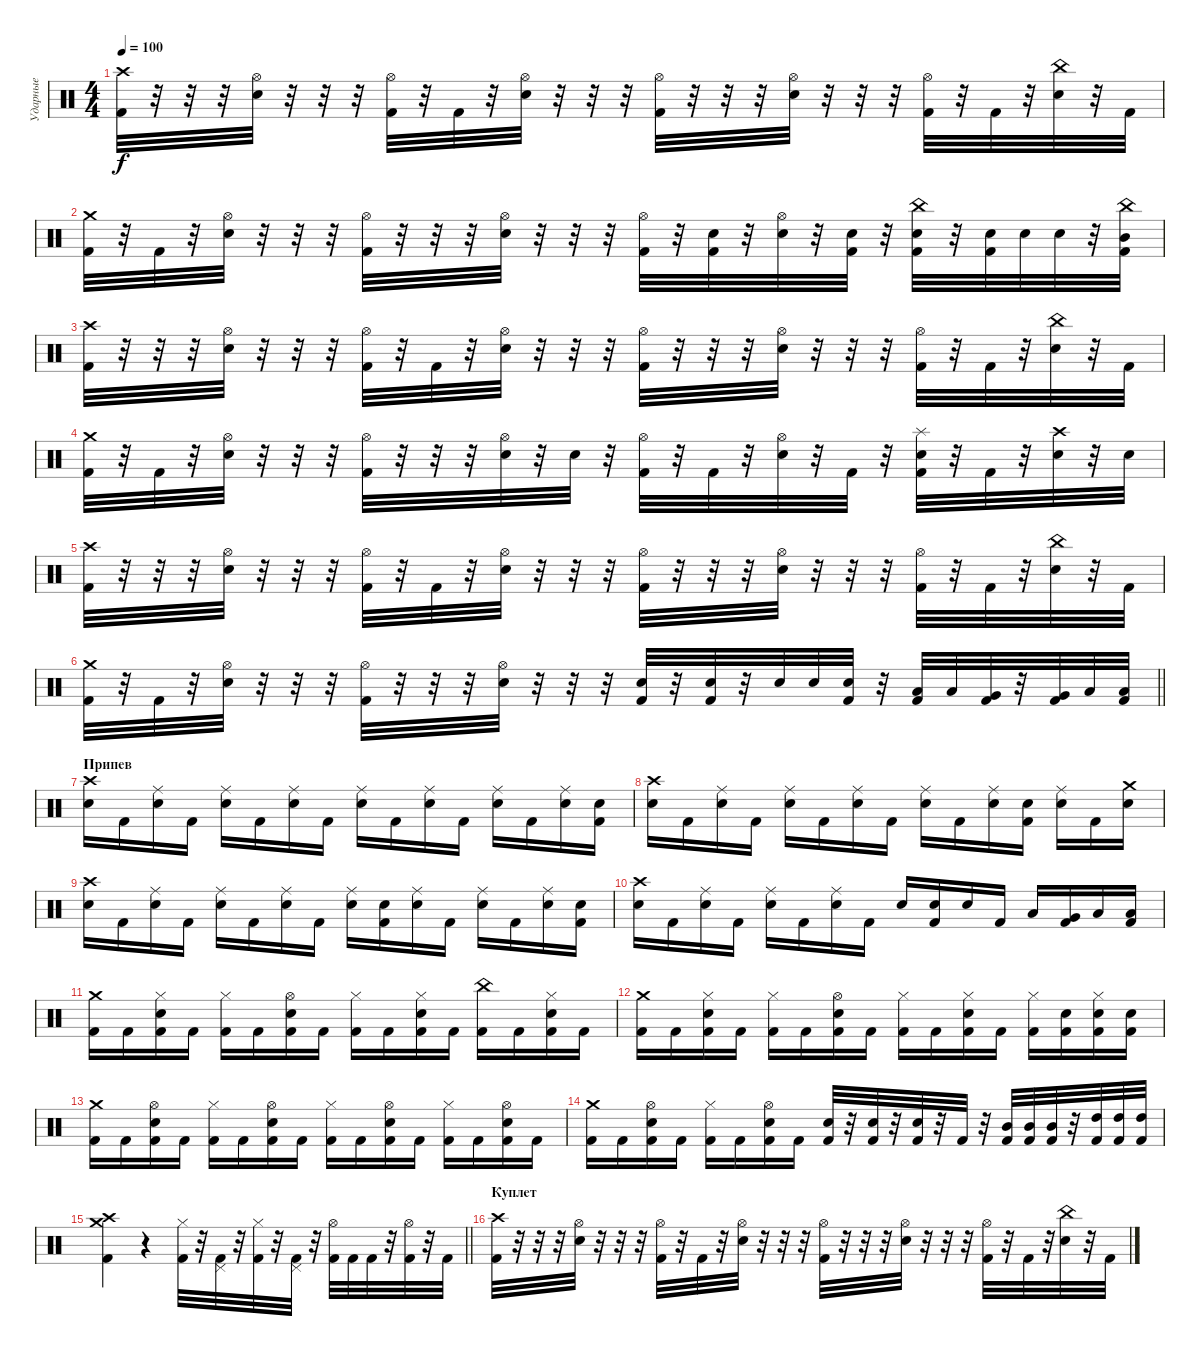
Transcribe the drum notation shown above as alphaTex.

\track ("Ударные" "Ударные") {instrument percussion}
\staff {score}
\articulation defaults
\ts (4 4)
\tempo 100
\clef neutral
\ks c
("Crash high (hit)" "Kick (hit) 2").32{dy f} r.32 r.32 r.32 ("Hi-Hat (open)" "Snare (hit) 2").32 r.32 r.32 r.32 ("Hi-Hat (open)" "Kick (hit) 2").32 r.32 "Kick (hit) 2".32 r.32 ("Hi-Hat (open)" "Snare (hit) 2").32 r.32 r.32 r.32 ("Hi-Hat (open)" "Kick (hit) 2").32 r.32 r.32 r.32 ("Hi-Hat (open)" "Snare (hit) 2").32 r.32 r.32 r.32 ("Hi-Hat (open)" "Kick (hit) 2").32 r.32 "Kick (hit) 2".32 r.32 ("China (hit)" "Snare (hit) 2").32 r.32 "Kick (hit) 2".32 |
("Crash medium (hit)" "Kick (hit) 2").32 r.32 "Kick (hit) 2".32 r.32 ("Hi-Hat (open)" "Snare (hit) 2").32 r.32 r.32 r.32 ("Hi-Hat (open)" "Kick (hit) 2").32 r.32 r.32 r.32 ("Hi-Hat (open)" "Snare (hit) 2").32 r.32 r.32 r.32 ("Hi-Hat (open)" "Kick (hit) 2").32 r.32 ("Snare (hit) 2" "Kick (hit) 2").32 r.32 ("Hi-Hat (open)" "Snare (hit) 2").32 r.32 ("Snare (hit) 2" "Kick (hit) 2").32 r.32 ("China (hit)" "Snare (hit) 2" "Kick (hit) 2").32 r.32 ("Snare (hit) 2" "Kick (hit) 2").32 "Snare (hit) 2".32 "Snare (hit) 2".32 r.32 ("China (hit)" "Mid Tom (hit)" "Kick (hit) 2").32 |
("Crash high (hit)" "Kick (hit) 2").32 r.32 r.32 r.32 ("Hi-Hat (open)" "Snare (hit) 2").32 r.32 r.32 r.32 ("Hi-Hat (open)" "Kick (hit) 2").32 r.32 "Kick (hit) 2".32 r.32 ("Hi-Hat (open)" "Snare (hit) 2").32 r.32 r.32 r.32 ("Hi-Hat (open)" "Kick (hit) 2").32 r.32 r.32 r.32 ("Hi-Hat (open)" "Snare (hit) 2").32 r.32 r.32 r.32 ("Hi-Hat (open)" "Kick (hit) 2").32 r.32 "Kick (hit) 2".32 r.32 ("China (hit)" "Snare (hit) 2").32 r.32 "Kick (hit) 2".32 |
("Crash medium (hit)" "Kick (hit) 2").32 r.32 "Kick (hit) 2".32 r.32 ("Hi-Hat (open)" "Snare (hit) 2").32 r.32 r.32 r.32 ("Hi-Hat (open)" "Kick (hit) 2").32 r.32 r.32 r.32 ("Hi-Hat (open)" "Snare (hit) 2").32 r.32 "Snare (hit) 2".32 r.32 ("Hi-Hat (open)" "Kick (hit) 2").32 r.32 "Kick (hit) 2".32 r.32 ("Hi-Hat (open)" "Snare (hit) 2").32 r.32 "Kick (hit) 2".32 r.32 ("Splash (hit)" "Snare (hit) 2" "Kick (hit) 2").32 r.32 "Kick (hit) 2".32 r.32 ("Crash high (hit)" "Snare (hit) 2").32 r.32 "Snare (hit) 2".32 |
("Crash high (hit)" "Kick (hit) 2").32 r.32 r.32 r.32 ("Hi-Hat (open)" "Snare (hit) 2").32 r.32 r.32 r.32 ("Hi-Hat (open)" "Kick (hit) 2").32 r.32 "Kick (hit) 2".32 r.32 ("Hi-Hat (open)" "Snare (hit) 2").32 r.32 r.32 r.32 ("Hi-Hat (open)" "Kick (hit) 2").32 r.32 r.32 r.32 ("Hi-Hat (open)" "Snare (hit) 2").32 r.32 r.32 r.32 ("Hi-Hat (open)" "Kick (hit) 2").32 r.32 "Kick (hit) 2".32 r.32 ("China (hit)" "Snare (hit) 2").32 r.32 "Kick (hit) 2".32 |
\barLineRight lightlight
("Crash medium (hit)" "Kick (hit) 2").32 r.32 "Kick (hit) 2".32 r.32 ("Hi-Hat (open)" "Snare (hit) 2").32 r.32 r.32 r.32 ("Hi-Hat (open)" "Kick (hit) 2").32 r.32 r.32 r.32 ("Hi-Hat (open)" "Snare (hit) 2").32 r.32 r.32 r.32 ("Snare (hit) 2" "Kick (hit) 2").32 r.32 ("Snare (hit) 2" "Kick (hit) 2").32 r.32 "Snare (hit) 2".32 "Snare (hit) 2".32 ("Snare (hit) 2" "Kick (hit) 2").32 r.32 ("Low Tom (hit)" "Kick (hit) 2").32 "Low Tom (hit)".32 ("Very Low Tom (hit)" "Kick (hit) 2").32 r.32 ("Very Low Tom (hit)" "Kick (hit) 2").32 "Low Floor Tom (hit)".32 ("Low Floor Tom (hit)" "Kick (hit) 2").32 |
\section ("" "Припев")
("Crash high (hit)" "Snare (hit) 2").16 "Kick (hit) 2".16 ("Ride (middle)" "Snare (hit) 2").16 "Kick (hit) 2".16 ("Ride (middle)" "Snare (hit) 2").16 "Kick (hit) 2".16 ("Ride (middle)" "Snare (hit) 2").16 "Kick (hit) 2".16 ("Ride (middle)" "Snare (hit) 2").16 "Kick (hit) 2".16 ("Ride (middle)" "Snare (hit) 2").16 "Kick (hit) 2".16 ("Ride (middle)" "Snare (hit) 2").16 "Kick (hit) 2".16 ("Ride (middle)" "Snare (hit) 2").16 ("Snare (hit) 2" "Kick (hit) 2").16 |
("Crash high (hit)" "Snare (hit) 2").16 "Kick (hit) 2".16 ("Ride (middle)" "Snare (hit) 2").16 "Kick (hit) 2".16 ("Ride (middle)" "Snare (hit) 2").16 "Kick (hit) 2".16 ("Ride (middle)" "Snare (hit) 2").16 "Kick (hit) 2".16 ("Ride (middle)" "Snare (hit) 2").16 "Kick (hit) 2".16 ("Ride (middle)" "Snare (hit) 2").16 ("Snare (hit) 2" "Kick (hit) 2").16 ("Ride (middle)" "Snare (hit) 2").16 "Kick (hit) 2".16 ("Crash medium (hit)" "Snare (hit) 2").16 |
("Crash high (hit)" "Snare (hit) 2").16 "Kick (hit) 2".16 ("Ride (middle)" "Snare (hit) 2").16 "Kick (hit) 2".16 ("Ride (middle)" "Snare (hit) 2").16 "Kick (hit) 2".16 ("Ride (middle)" "Snare (hit) 2").16 "Kick (hit) 2".16 ("Ride (middle)" "Snare (hit) 2").16 ("Snare (hit) 2" "Kick (hit) 2").16 ("Ride (middle)" "Snare (hit) 2").16 "Kick (hit) 2".16 ("Ride (middle)" "Snare (hit) 2").16 "Kick (hit) 2".16 ("Ride (middle)" "Snare (hit) 2").16 ("Snare (hit) 2" "Kick (hit) 2").16 |
("Crash high (hit)" "Snare (hit) 2").16 "Kick (hit) 2".16 ("Ride (middle)" "Snare (hit) 2").16 "Kick (hit) 2".16 ("Ride (middle)" "Snare (hit) 2").16 "Kick (hit) 2".16 ("Ride (middle)" "Snare (hit) 2").16 "Kick (hit) 2".16 "Snare (hit) 2".16 ("Snare (hit) 2" "Kick (hit) 2").16 "Snare (hit) 2".16 "Kick (hit) 2".16 "Low Tom (hit)".16 ("Very Low Tom (hit)" "Kick (hit) 2").16 "Low Tom (hit)".16 ("Low Floor Tom (hit)" "Kick (hit) 2").16 |
("Crash medium (hit)" "Kick (hit) 2").16 "Kick (hit) 2".16 ("Hi-Hat (closed)" "Snare (hit) 2" "Kick (hit) 2").16 "Kick (hit) 2".16 ("Hi-Hat (closed)" "Kick (hit) 2").16 "Kick (hit) 2".16 ("Hi-Hat (open)" "Snare (hit) 2" "Kick (hit) 2").16 "Kick (hit) 2".16 ("Hi-Hat (closed)" "Kick (hit) 2").16 "Kick (hit) 2".16 ("Hi-Hat (closed)" "Snare (hit) 2" "Kick (hit) 2").16 "Kick (hit) 2".16 ("China (hit)" "Kick (hit) 2").16 "Kick (hit) 2".16 ("Hi-Hat (closed)" "Snare (hit) 2" "Kick (hit) 2").16 "Kick (hit) 2".16 |
("Crash medium (hit)" "Kick (hit) 2").16 "Kick (hit) 2".16 ("Hi-Hat (closed)" "Snare (hit) 2" "Kick (hit) 2").16 "Kick (hit) 2".16 ("Hi-Hat (closed)" "Kick (hit) 2").16 "Kick (hit) 2".16 ("Hi-Hat (open)" "Snare (hit) 2" "Kick (hit) 2").16 "Kick (hit) 2".16 ("Hi-Hat (closed)" "Kick (hit) 2").16 "Kick (hit) 2".16 ("Hi-Hat (closed)" "Snare (hit) 2" "Kick (hit) 2").16 "Kick (hit) 2".16 ("Hi-Hat (closed)" "Kick (hit) 2").16 ("Snare (hit) 2" "Kick (hit) 2").16 ("Hi-Hat (closed)" "Snare (hit) 2" "Kick (hit) 2").16 ("Snare (hit) 2" "Kick (hit) 2").16 |
("Crash medium (hit)" "Kick (hit) 2").16 "Kick (hit) 2".16 ("Hi-Hat (open)" "Snare (hit) 2" "Kick (hit) 2").16 "Kick (hit) 2".16 ("Hi-Hat (closed)" "Kick (hit) 2").16 "Kick (hit) 2".16 ("Hi-Hat (open)" "Snare (hit) 2" "Kick (hit) 2").16 "Kick (hit) 2".16 ("Hi-Hat (closed)" "Kick (hit) 2").16 "Kick (hit) 2".16 ("Hi-Hat (open)" "Snare (hit) 2" "Kick (hit) 2").16 "Kick (hit) 2".16 ("Hi-Hat (closed)" "Kick (hit) 2").16 "Kick (hit) 2".16 ("Hi-Hat (open)" "Snare (hit) 2" "Kick (hit) 2").16 "Kick (hit) 2".16 |
("Crash medium (hit)" "Kick (hit) 2").16 "Kick (hit) 2".16 ("Hi-Hat (open)" "Snare (hit) 2" "Kick (hit) 2").16 "Kick (hit) 2".16 ("Hi-Hat (closed)" "Kick (hit) 2").16 "Kick (hit) 2".16 ("Hi-Hat (open)" "Snare (hit) 2" "Kick (hit) 2").16 "Kick (hit) 2".16 ("Snare (hit) 2" "Kick (hit) 2").32 r.32 ("Snare (hit) 2" "Kick (hit) 2").32 r.32 ("Snare (hit) 2" "Kick (hit) 2").32 r.32 "Kick (hit) 2".32 r.32 ("Mid Tom (hit)" "Kick (hit) 2").32 ("Mid Tom (hit)" "Kick (hit) 2").32 ("Mid Tom (hit)" "Kick (hit) 2").32 r.32 ("High Tom (hit)" "Kick (hit) 2").32 ("High Tom (hit)" "Kick (hit) 2").32 ("High Tom (hit)" "Kick (hit) 2").32 |
\barLineRight lightlight
("Crash medium (hit)" "Crash high (hit)" "Kick (hit) 2").4 r.4 ("Hi-Hat (closed)" "Kick (hit) 2").32 r.32 ("Pedal Hi-Hat (hit)" "Kick (hit) 2").32 r.32 ("Hi-Hat (closed)" "Kick (hit) 2").32 r.32 ("Pedal Hi-Hat (hit)" "Kick (hit) 2").32 r.32 ("Hi-Hat (open)" "Kick (hit) 2").32 "Kick (hit) 2".32 "Kick (hit) 2".32 r.32 ("Hi-Hat (open)" "Kick (hit) 2").32 r.32 "Kick (hit) 2".32 |
\section ("" "Куплет")
("Crash high (hit)" "Kick (hit) 2").32 r.32 r.32 r.32 ("Hi-Hat (open)" "Snare (hit) 2").32 r.32 r.32 r.32 ("Hi-Hat (open)" "Kick (hit) 2").32 r.32 "Kick (hit) 2".32 r.32 ("Hi-Hat (open)" "Snare (hit) 2").32 r.32 r.32 r.32 ("Hi-Hat (open)" "Kick (hit) 2").32 r.32 r.32 r.32 ("Hi-Hat (open)" "Snare (hit) 2").32 r.32 r.32 r.32 ("Hi-Hat (open)" "Kick (hit) 2").32 r.32 "Kick (hit) 2".32 r.32 ("China (hit)" "Snare (hit) 2").32 r.32 "Kick (hit) 2".32
